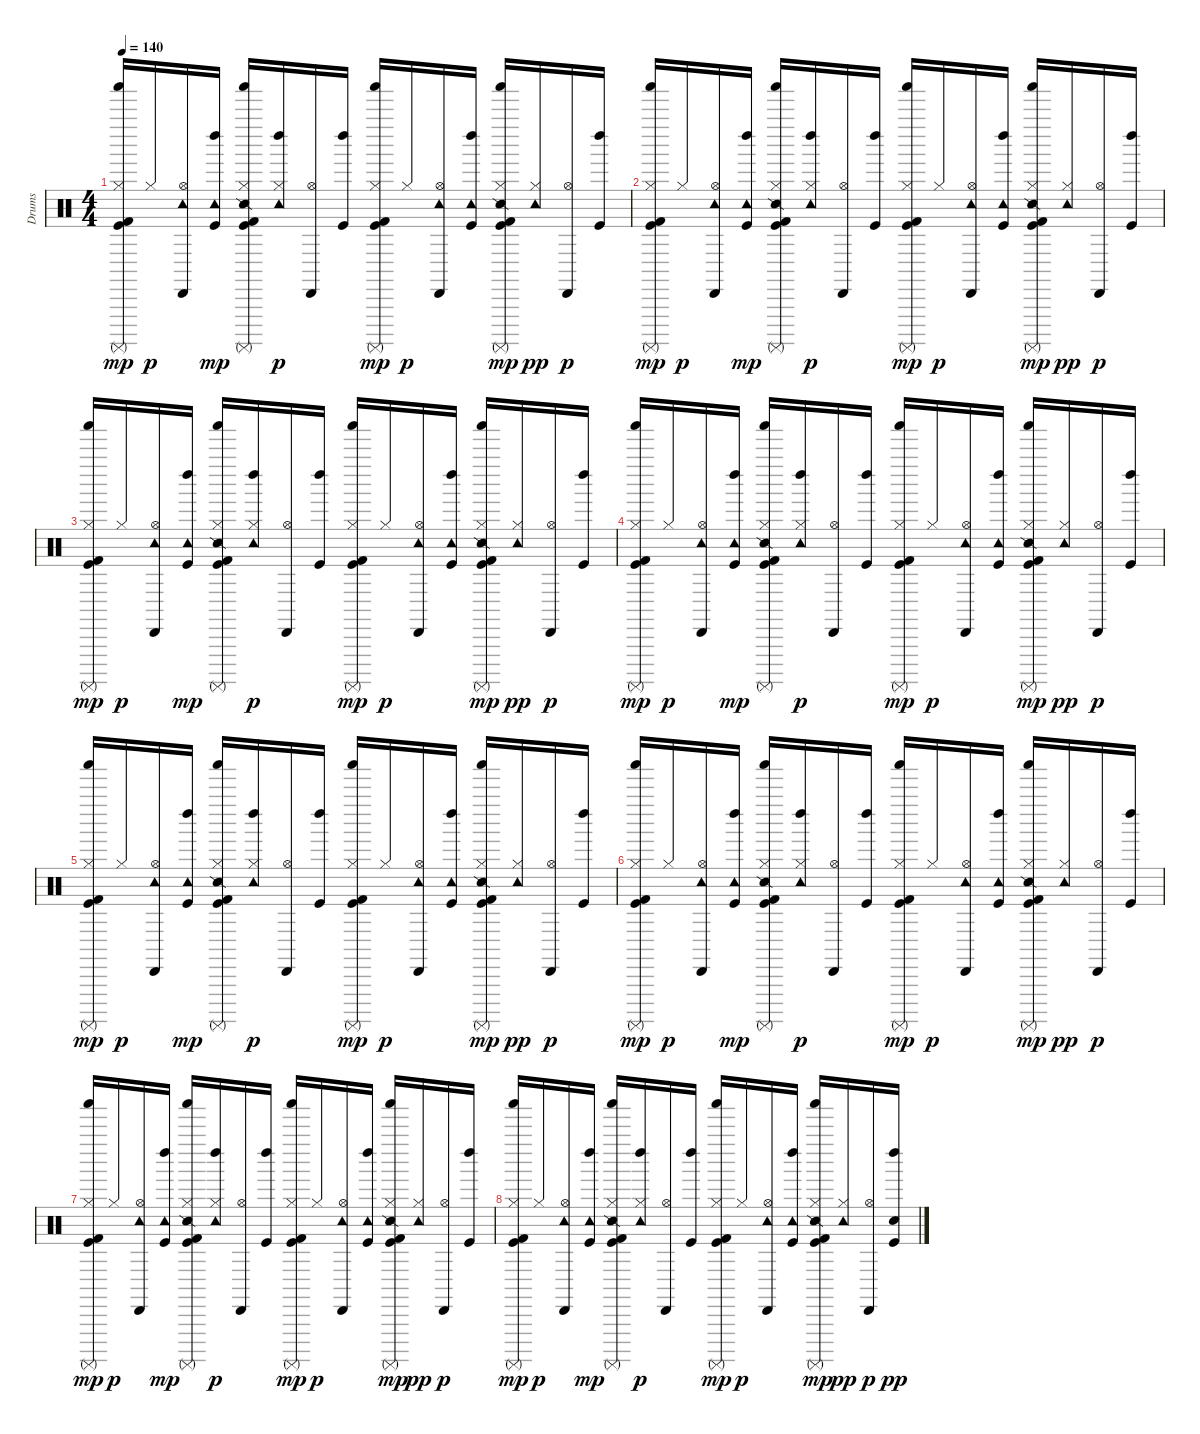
\track ("Drums" "Drums") {instrument percussion}
\staff {score}
\articulation defaults
\ts (4 4)
\tempo 140
\clef neutral
\ks c
("Kick (hit)" "Kick (hit) 2" "Hi-Hat (closed)" "Shaker (hit)" "Surdo (mute)").16{dy mp} "Hi-Hat (closed)".16{dy p} ("Hi-Hat (open)" "Tambourine (hit)" "Cabasa (hit)").16 ("Kick (hit)" "Tambourine (hit)" "Left Maraca (hit)").16{dy mp} ("Snare (side stick) 2" "Kick (hit)" "Kick (hit) 2" "Hi-Hat (closed)" "Shaker (hit)" "Surdo (mute)").16 ("Hi-Hat (closed)" "Tambourine (hit)" "Left Maraca (hit)").16{dy p} ("Hi-Hat (open)" "Cabasa (hit)").16 ("Kick (hit)" "Left Maraca (hit)").16 ("Kick (hit)" "Kick (hit) 2" "Hi-Hat (closed)" "Shaker (hit)" "Surdo (mute)").16{dy mp} "Hi-Hat (closed)".16{dy p} ("Hi-Hat (open)" "Tambourine (hit)" "Cabasa (hit)").16 ("Kick (hit)" "Tambourine (hit)" "Left Maraca (hit)").16 ("Snare (side stick) 2" "Kick (hit)" "Kick (hit) 2" "Hi-Hat (closed)" "Shaker (hit)" "Surdo (mute)").16{dy mp} ("Hi-Hat (closed)" "Tambourine (hit)").16{dy pp} ("Hi-Hat (open)" "Cabasa (hit)").16{dy p} ("Kick (hit)" "Left Maraca (hit)").16 |
("Kick (hit)" "Kick (hit) 2" "Hi-Hat (closed)" "Shaker (hit)" "Surdo (mute)").16{dy mp} "Hi-Hat (closed)".16{dy p} ("Hi-Hat (open)" "Tambourine (hit)" "Cabasa (hit)").16 ("Kick (hit)" "Tambourine (hit)" "Left Maraca (hit)").16{dy mp} ("Snare (side stick) 2" "Kick (hit)" "Kick (hit) 2" "Hi-Hat (closed)" "Shaker (hit)" "Surdo (mute)").16 ("Hi-Hat (closed)" "Tambourine (hit)" "Left Maraca (hit)").16{dy p} ("Hi-Hat (open)" "Cabasa (hit)").16 ("Kick (hit)" "Left Maraca (hit)").16 ("Kick (hit)" "Kick (hit) 2" "Hi-Hat (closed)" "Shaker (hit)" "Surdo (mute)").16{dy mp} "Hi-Hat (closed)".16{dy p} ("Hi-Hat (open)" "Tambourine (hit)" "Cabasa (hit)").16 ("Kick (hit)" "Tambourine (hit)" "Left Maraca (hit)").16 ("Snare (side stick) 2" "Kick (hit)" "Kick (hit) 2" "Hi-Hat (closed)" "Shaker (hit)" "Surdo (mute)").16{dy mp} ("Hi-Hat (closed)" "Tambourine (hit)").16{dy pp} ("Hi-Hat (open)" "Cabasa (hit)").16{dy p} ("Kick (hit)" "Left Maraca (hit)").16 |
("Kick (hit)" "Kick (hit) 2" "Hi-Hat (closed)" "Shaker (hit)" "Surdo (mute)").16{dy mp} "Hi-Hat (closed)".16{dy p} ("Hi-Hat (open)" "Tambourine (hit)" "Cabasa (hit)").16 ("Kick (hit)" "Tambourine (hit)" "Left Maraca (hit)").16{dy mp} ("Snare (side stick) 2" "Kick (hit)" "Kick (hit) 2" "Hi-Hat (closed)" "Shaker (hit)" "Surdo (mute)").16 ("Hi-Hat (closed)" "Tambourine (hit)" "Left Maraca (hit)").16{dy p} ("Hi-Hat (open)" "Cabasa (hit)").16 ("Kick (hit)" "Left Maraca (hit)").16 ("Kick (hit)" "Kick (hit) 2" "Hi-Hat (closed)" "Shaker (hit)" "Surdo (mute)").16{dy mp} "Hi-Hat (closed)".16{dy p} ("Hi-Hat (open)" "Tambourine (hit)" "Cabasa (hit)").16 ("Kick (hit)" "Tambourine (hit)" "Left Maraca (hit)").16 ("Snare (side stick) 2" "Kick (hit)" "Kick (hit) 2" "Hi-Hat (closed)" "Shaker (hit)" "Surdo (mute)").16{dy mp} ("Hi-Hat (closed)" "Tambourine (hit)").16{dy pp} ("Hi-Hat (open)" "Cabasa (hit)").16{dy p} ("Kick (hit)" "Left Maraca (hit)").16 |
("Kick (hit)" "Kick (hit) 2" "Hi-Hat (closed)" "Shaker (hit)" "Surdo (mute)").16{dy mp} "Hi-Hat (closed)".16{dy p} ("Hi-Hat (open)" "Tambourine (hit)" "Cabasa (hit)").16 ("Kick (hit)" "Tambourine (hit)" "Left Maraca (hit)").16{dy mp} ("Snare (side stick) 2" "Kick (hit)" "Kick (hit) 2" "Hi-Hat (closed)" "Shaker (hit)" "Surdo (mute)").16 ("Hi-Hat (closed)" "Tambourine (hit)" "Left Maraca (hit)").16{dy p} ("Hi-Hat (open)" "Cabasa (hit)").16 ("Kick (hit)" "Left Maraca (hit)").16 ("Kick (hit)" "Kick (hit) 2" "Hi-Hat (closed)" "Shaker (hit)" "Surdo (mute)").16{dy mp} "Hi-Hat (closed)".16{dy p} ("Hi-Hat (open)" "Tambourine (hit)" "Cabasa (hit)").16 ("Kick (hit)" "Tambourine (hit)" "Left Maraca (hit)").16 ("Snare (side stick) 2" "Kick (hit)" "Kick (hit) 2" "Hi-Hat (closed)" "Shaker (hit)" "Surdo (mute)").16{dy mp} ("Hi-Hat (closed)" "Tambourine (hit)").16{dy pp} ("Hi-Hat (open)" "Cabasa (hit)").16{dy p} ("Kick (hit)" "Left Maraca (hit)").16 |
("Kick (hit)" "Kick (hit) 2" "Hi-Hat (closed)" "Shaker (hit)" "Surdo (mute)").16{dy mp} "Hi-Hat (closed)".16{dy p} ("Hi-Hat (open)" "Tambourine (hit)" "Cabasa (hit)").16 ("Kick (hit)" "Tambourine (hit)" "Left Maraca (hit)").16{dy mp} ("Snare (side stick) 2" "Kick (hit)" "Kick (hit) 2" "Hi-Hat (closed)" "Shaker (hit)" "Surdo (mute)").16 ("Hi-Hat (closed)" "Tambourine (hit)" "Left Maraca (hit)").16{dy p} ("Hi-Hat (open)" "Cabasa (hit)").16 ("Kick (hit)" "Left Maraca (hit)").16 ("Kick (hit)" "Kick (hit) 2" "Hi-Hat (closed)" "Shaker (hit)" "Surdo (mute)").16{dy mp} "Hi-Hat (closed)".16{dy p} ("Hi-Hat (open)" "Tambourine (hit)" "Cabasa (hit)").16 ("Kick (hit)" "Tambourine (hit)" "Left Maraca (hit)").16 ("Snare (side stick) 2" "Kick (hit)" "Kick (hit) 2" "Hi-Hat (closed)" "Shaker (hit)" "Surdo (mute)").16{dy mp} ("Hi-Hat (closed)" "Tambourine (hit)").16{dy pp} ("Hi-Hat (open)" "Cabasa (hit)").16{dy p} ("Kick (hit)" "Left Maraca (hit)").16 |
("Kick (hit)" "Kick (hit) 2" "Hi-Hat (closed)" "Shaker (hit)" "Surdo (mute)").16{dy mp} "Hi-Hat (closed)".16{dy p} ("Hi-Hat (open)" "Tambourine (hit)" "Cabasa (hit)").16 ("Kick (hit)" "Tambourine (hit)" "Left Maraca (hit)").16{dy mp} ("Snare (side stick) 2" "Kick (hit)" "Kick (hit) 2" "Hi-Hat (closed)" "Shaker (hit)" "Surdo (mute)").16 ("Hi-Hat (closed)" "Tambourine (hit)" "Left Maraca (hit)").16{dy p} ("Hi-Hat (open)" "Cabasa (hit)").16 ("Kick (hit)" "Left Maraca (hit)").16 ("Kick (hit)" "Kick (hit) 2" "Hi-Hat (closed)" "Shaker (hit)" "Surdo (mute)").16{dy mp} "Hi-Hat (closed)".16{dy p} ("Hi-Hat (open)" "Tambourine (hit)" "Cabasa (hit)").16 ("Kick (hit)" "Tambourine (hit)" "Left Maraca (hit)").16 ("Snare (side stick) 2" "Kick (hit)" "Kick (hit) 2" "Hi-Hat (closed)" "Shaker (hit)" "Surdo (mute)").16{dy mp} ("Hi-Hat (closed)" "Tambourine (hit)").16{dy pp} ("Hi-Hat (open)" "Cabasa (hit)").16{dy p} ("Kick (hit)" "Left Maraca (hit)").16 |
("Kick (hit)" "Kick (hit) 2" "Hi-Hat (closed)" "Shaker (hit)" "Surdo (mute)").16{dy mp} "Hi-Hat (closed)".16{dy p} ("Hi-Hat (open)" "Tambourine (hit)" "Cabasa (hit)").16 ("Kick (hit)" "Tambourine (hit)" "Left Maraca (hit)").16{dy mp} ("Snare (side stick) 2" "Kick (hit)" "Kick (hit) 2" "Hi-Hat (closed)" "Shaker (hit)" "Surdo (mute)").16 ("Hi-Hat (closed)" "Tambourine (hit)" "Left Maraca (hit)").16{dy p} ("Hi-Hat (open)" "Cabasa (hit)").16 ("Kick (hit)" "Left Maraca (hit)").16 ("Kick (hit)" "Kick (hit) 2" "Hi-Hat (closed)" "Shaker (hit)" "Surdo (mute)").16{dy mp} "Hi-Hat (closed)".16{dy p} ("Hi-Hat (open)" "Tambourine (hit)" "Cabasa (hit)").16 ("Kick (hit)" "Tambourine (hit)" "Left Maraca (hit)").16 ("Snare (side stick) 2" "Kick (hit)" "Kick (hit) 2" "Hi-Hat (closed)" "Shaker (hit)" "Surdo (mute)").16{dy mp} ("Hi-Hat (closed)" "Tambourine (hit)").16{dy pp} ("Hi-Hat (open)" "Cabasa (hit)").16{dy p} ("Kick (hit)" "Left Maraca (hit)").16 |
("Kick (hit)" "Kick (hit) 2" "Hi-Hat (closed)" "Shaker (hit)" "Surdo (mute)").16{dy mp} "Hi-Hat (closed)".16{dy p} ("Hi-Hat (open)" "Tambourine (hit)" "Cabasa (hit)").16 ("Kick (hit)" "Tambourine (hit)" "Left Maraca (hit)").16{dy mp} ("Snare (side stick) 2" "Kick (hit)" "Kick (hit) 2" "Hi-Hat (closed)" "Shaker (hit)" "Surdo (mute)").16 ("Hi-Hat (closed)" "Tambourine (hit)" "Left Maraca (hit)").16{dy p} ("Hi-Hat (open)" "Cabasa (hit)").16 ("Kick (hit)" "Left Maraca (hit)").16 ("Kick (hit)" "Kick (hit) 2" "Hi-Hat (closed)" "Shaker (hit)" "Surdo (mute)").16{dy mp} "Hi-Hat (closed)".16{dy p} ("Hi-Hat (open)" "Tambourine (hit)" "Cabasa (hit)").16 ("Kick (hit)" "Tambourine (hit)" "Left Maraca (hit)").16 ("Snare (side stick) 2" "Kick (hit)" "Kick (hit) 2" "Hi-Hat (closed)" "Shaker (hit)" "Surdo (mute)").16{dy mp} ("Hi-Hat (closed)" "Tambourine (hit)").16{dy pp} ("Hi-Hat (open)" "Cabasa (hit)").16{dy p} ("Kick (hit)" "Left Maraca (hit)" "Snare (hit) 2").16{dy pp}
